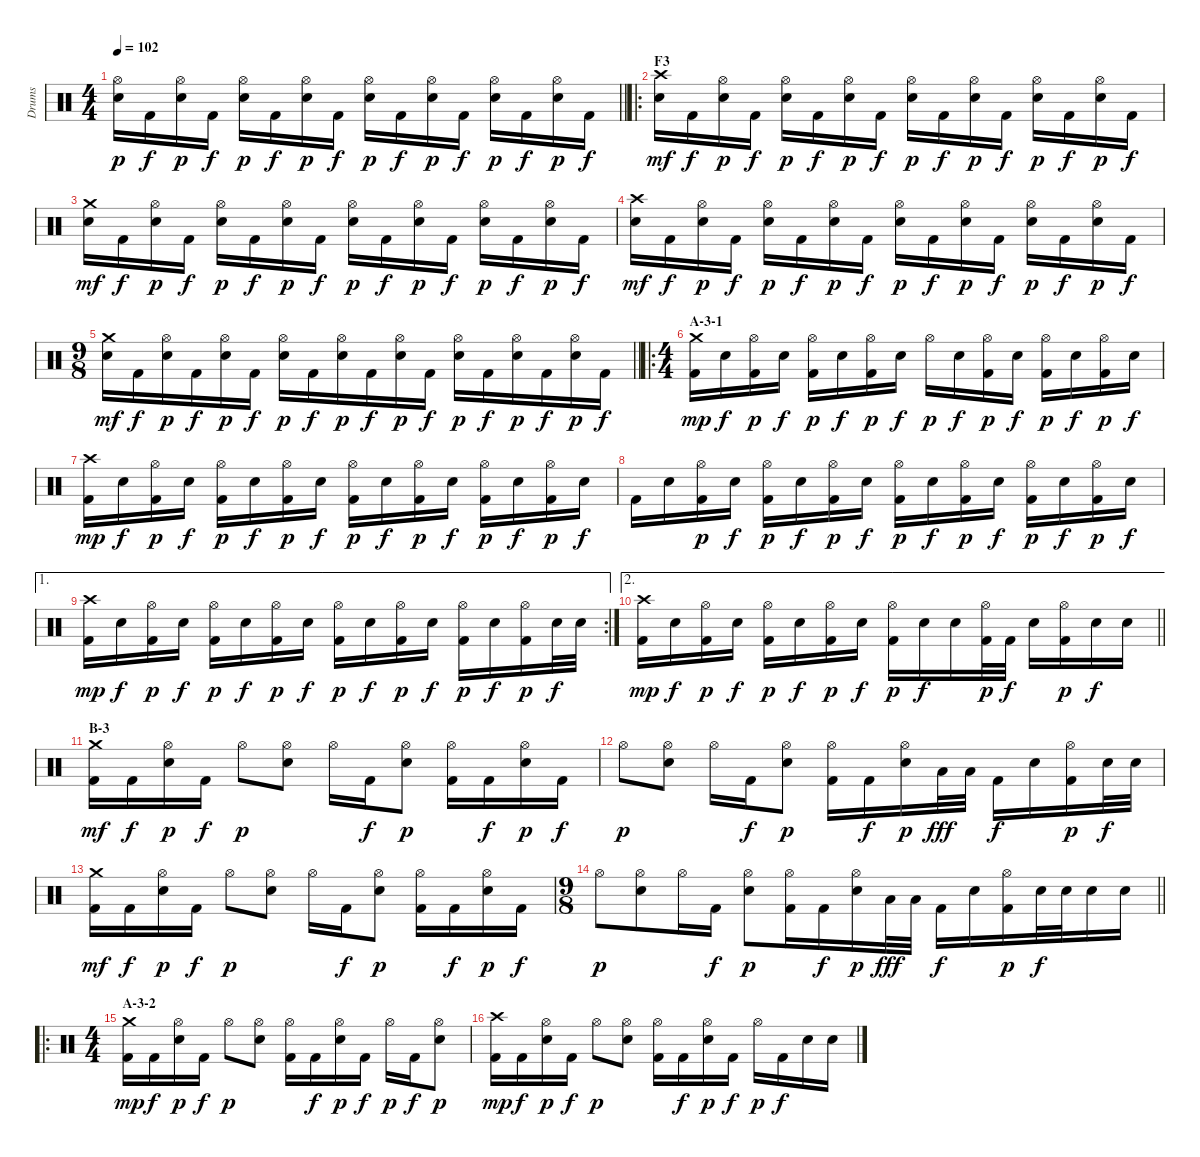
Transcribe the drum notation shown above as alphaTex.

\track ("Drums" "Drums") {instrument percussion}
\staff {score}
\articulation defaults
\ts (4 4)
\tempo 102
\clef neutral
\barLineRight lightlight
\ks c
("Hi-Hat (open)" "Electric Snare (hit)").16{dy p} "Kick (hit) 2".16{dy f} ("Hi-Hat (open)" "Electric Snare (hit)").16{dy p} "Kick (hit) 2".16{dy f} ("Hi-Hat (open)" "Electric Snare (hit)").16{dy p} "Kick (hit) 2".16{dy f} ("Hi-Hat (open)" "Electric Snare (hit)").16{dy p} "Kick (hit) 2".16{dy f} ("Hi-Hat (open)" "Electric Snare (hit)").16{dy p} "Kick (hit) 2".16{dy f} ("Hi-Hat (open)" "Electric Snare (hit)").16{dy p} "Kick (hit) 2".16{dy f} ("Hi-Hat (open)" "Electric Snare (hit)").16{dy p} "Kick (hit) 2".16{dy f} ("Hi-Hat (open)" "Electric Snare (hit)").16{dy p} "Kick (hit) 2".16{dy f} |
\ro
\section ("" "F3")
("Crash high (hit)" "Electric Snare (hit)").16{dy mf} "Kick (hit) 2".16{dy f} ("Hi-Hat (open)" "Electric Snare (hit)").16{dy p} "Kick (hit) 2".16{dy f} ("Hi-Hat (open)" "Electric Snare (hit)").16{dy p} "Kick (hit) 2".16{dy f} ("Hi-Hat (open)" "Electric Snare (hit)").16{dy p} "Kick (hit) 2".16{dy f} ("Hi-Hat (open)" "Electric Snare (hit)").16{dy p} "Kick (hit) 2".16{dy f} ("Hi-Hat (open)" "Electric Snare (hit)").16{dy p} "Kick (hit) 2".16{dy f} ("Hi-Hat (open)" "Electric Snare (hit)").16{dy p} "Kick (hit) 2".16{dy f} ("Hi-Hat (open)" "Electric Snare (hit)").16{dy p} "Kick (hit) 2".16{dy f} |
("Crash medium (hit)" "Electric Snare (hit)").16{dy mf} "Kick (hit) 2".16{dy f} ("Hi-Hat (open)" "Electric Snare (hit)").16{dy p} "Kick (hit) 2".16{dy f} ("Hi-Hat (open)" "Electric Snare (hit)").16{dy p} "Kick (hit) 2".16{dy f} ("Hi-Hat (open)" "Electric Snare (hit)").16{dy p} "Kick (hit) 2".16{dy f} ("Hi-Hat (open)" "Electric Snare (hit)").16{dy p} "Kick (hit) 2".16{dy f} ("Hi-Hat (open)" "Electric Snare (hit)").16{dy p} "Kick (hit) 2".16{dy f} ("Hi-Hat (open)" "Electric Snare (hit)").16{dy p} "Kick (hit) 2".16{dy f} ("Hi-Hat (open)" "Electric Snare (hit)").16{dy p} "Kick (hit) 2".16{dy f} |
("Crash high (hit)" "Electric Snare (hit)").16{dy mf} "Kick (hit) 2".16{dy f} ("Hi-Hat (open)" "Electric Snare (hit)").16{dy p} "Kick (hit) 2".16{dy f} ("Hi-Hat (open)" "Electric Snare (hit)").16{dy p} "Kick (hit) 2".16{dy f} ("Hi-Hat (open)" "Electric Snare (hit)").16{dy p} "Kick (hit) 2".16{dy f} ("Hi-Hat (open)" "Electric Snare (hit)").16{dy p} "Kick (hit) 2".16{dy f} ("Hi-Hat (open)" "Electric Snare (hit)").16{dy p} "Kick (hit) 2".16{dy f} ("Hi-Hat (open)" "Electric Snare (hit)").16{dy p} "Kick (hit) 2".16{dy f} ("Hi-Hat (open)" "Electric Snare (hit)").16{dy p} "Kick (hit) 2".16{dy f} |
\ts (9 8)
\barLineRight lightlight
("Crash medium (hit)" "Electric Snare (hit)").16{dy mf} "Kick (hit) 2".16{dy f} ("Hi-Hat (open)" "Electric Snare (hit)").16{dy p} "Kick (hit) 2".16{dy f} ("Hi-Hat (open)" "Electric Snare (hit)").16{dy p} "Kick (hit) 2".16{dy f} ("Hi-Hat (open)" "Electric Snare (hit)").16{dy p} "Kick (hit) 2".16{dy f} ("Hi-Hat (open)" "Electric Snare (hit)").16{dy p} "Kick (hit) 2".16{dy f} ("Hi-Hat (open)" "Electric Snare (hit)").16{dy p} "Kick (hit) 2".16{dy f} ("Hi-Hat (open)" "Electric Snare (hit)").16{dy p} "Kick (hit) 2".16{dy f} ("Hi-Hat (open)" "Electric Snare (hit)").16{dy p} "Kick (hit) 2".16{dy f} ("Hi-Hat (open)" "Electric Snare (hit)").16{dy p} "Kick (hit) 2".16{dy f} |
\ro
\ts (4 4)
\section ("" "A-3-1")
("Crash medium (hit)" "Kick (hit) 2").16{dy mp} "Electric Snare (hit)".16{dy f} ("Hi-Hat (open)" "Kick (hit) 2").16{dy p} "Electric Snare (hit)".16{dy f} ("Hi-Hat (open)" "Kick (hit) 2").16{dy p} "Electric Snare (hit)".16{dy f} ("Hi-Hat (open)" "Kick (hit) 2").16{dy p} "Electric Snare (hit)".16{dy f} "Hi-Hat (open)".16{dy p} "Electric Snare (hit)".16{dy f} ("Hi-Hat (open)" "Kick (hit) 2").16{dy p} "Electric Snare (hit)".16{dy f} ("Hi-Hat (open)" "Kick (hit) 2").16{dy p} "Electric Snare (hit)".16{dy f} ("Hi-Hat (open)" "Kick (hit) 2").16{dy p} "Electric Snare (hit)".16{dy f} |
("Crash high (hit)" "Kick (hit) 2").16{dy mp} "Electric Snare (hit)".16{dy f} ("Hi-Hat (open)" "Kick (hit) 2").16{dy p} "Electric Snare (hit)".16{dy f} ("Hi-Hat (open)" "Kick (hit) 2").16{dy p} "Electric Snare (hit)".16{dy f} ("Hi-Hat (open)" "Kick (hit) 2").16{dy p} "Electric Snare (hit)".16{dy f} ("Hi-Hat (open)" "Kick (hit) 2").16{dy p} "Electric Snare (hit)".16{dy f} ("Hi-Hat (open)" "Kick (hit) 2").16{dy p} "Electric Snare (hit)".16{dy f} ("Hi-Hat (open)" "Kick (hit) 2").16{dy p} "Electric Snare (hit)".16{dy f} ("Hi-Hat (open)" "Kick (hit) 2").16{dy p} "Electric Snare (hit)".16{dy f} |
"Kick (hit) 2".16 "Electric Snare (hit)".16 ("Hi-Hat (open)" "Kick (hit) 2").16{dy p} "Electric Snare (hit)".16{dy f} ("Hi-Hat (open)" "Kick (hit) 2").16{dy p} "Electric Snare (hit)".16{dy f} ("Hi-Hat (open)" "Kick (hit) 2").16{dy p} "Electric Snare (hit)".16{dy f} ("Hi-Hat (open)" "Kick (hit) 2").16{dy p} "Electric Snare (hit)".16{dy f} ("Hi-Hat (open)" "Kick (hit) 2").16{dy p} "Electric Snare (hit)".16{dy f} ("Hi-Hat (open)" "Kick (hit) 2").16{dy p} "Electric Snare (hit)".16{dy f} ("Hi-Hat (open)" "Kick (hit) 2").16{dy p} "Electric Snare (hit)".16{dy f} |
\ae 1
\rc 2
("Crash high (hit)" "Kick (hit) 2").16{dy mp} "Electric Snare (hit)".16{dy f} ("Hi-Hat (open)" "Kick (hit) 2").16{dy p} "Electric Snare (hit)".16{dy f} ("Hi-Hat (open)" "Kick (hit) 2").16{dy p} "Electric Snare (hit)".16{dy f} ("Hi-Hat (open)" "Kick (hit) 2").16{dy p} "Electric Snare (hit)".16{dy f} ("Hi-Hat (open)" "Kick (hit) 2").16{dy p} "Electric Snare (hit)".16{dy f} ("Hi-Hat (open)" "Kick (hit) 2").16{dy p} "Electric Snare (hit)".16{dy f} ("Hi-Hat (open)" "Kick (hit) 2").16{dy p} "Electric Snare (hit)".16{dy f} ("Hi-Hat (open)" "Kick (hit) 2").16{dy p} "Electric Snare (hit)".32{dy f} "Electric Snare (hit)".32 |
\ae 2
\barLineRight lightlight
("Crash high (hit)" "Kick (hit) 2").16{dy mp} "Electric Snare (hit)".16{dy f} ("Hi-Hat (open)" "Kick (hit) 2").16{dy p} "Electric Snare (hit)".16{dy f} ("Hi-Hat (open)" "Kick (hit) 2").16{dy p} "Electric Snare (hit)".16{dy f} ("Hi-Hat (open)" "Kick (hit) 2").16{dy p} "Electric Snare (hit)".16{dy f} ("Hi-Hat (open)" "Kick (hit) 2").16{dy p} "Electric Snare (hit)".16{dy f} "Electric Snare (hit)".16 ("Hi-Hat (open)" "Kick (hit) 2").32{dy p} "Kick (hit) 2".32{dy f} "Electric Snare (hit)".16 ("Hi-Hat (open)" "Kick (hit) 2").16{dy p} "Electric Snare (hit)".16{dy f} "Electric Snare (hit)".16 |
\section ("" "B-3")
("Crash medium (hit)" "Kick (hit) 2").16{dy mf} "Kick (hit) 2".16{dy f} ("Hi-Hat (open)" "Electric Snare (hit)").16{dy p} "Kick (hit) 2".16{dy f} "Hi-Hat (open)".8{dy p} ("Hi-Hat (open)" "Electric Snare (hit)").8 "Hi-Hat (open)".16 "Kick (hit) 2".16{dy f} ("Hi-Hat (open)" "Electric Snare (hit)").8{dy p} ("Hi-Hat (open)" "Kick (hit) 2").16 "Kick (hit) 2".16{dy f} ("Hi-Hat (open)" "Electric Snare (hit)").16{dy p} "Kick (hit) 2".16{dy f} |
"Hi-Hat (open)".8{dy p} ("Hi-Hat (open)" "Electric Snare (hit)").8 "Hi-Hat (open)".16 "Kick (hit) 2".16{dy f} ("Hi-Hat (open)" "Electric Snare (hit)").8{dy p} ("Hi-Hat (open)" "Kick (hit) 2").16 "Kick (hit) 2".16{dy f} ("Hi-Hat (open)" "Electric Snare (hit)").16{dy p} "Low Tom (hit)".32{dy fff} "Low Tom (hit)".32 "Kick (hit) 2".16{dy f} "Electric Snare (hit)".16 ("Hi-Hat (open)" "Kick (hit) 2").16{dy p} "Electric Snare (hit)".32{dy f} "Electric Snare (hit)".32 |
("Crash medium (hit)" "Kick (hit) 2").16{dy mf} "Kick (hit) 2".16{dy f} ("Hi-Hat (open)" "Electric Snare (hit)").16{dy p} "Kick (hit) 2".16{dy f} "Hi-Hat (open)".8{dy p} ("Hi-Hat (open)" "Electric Snare (hit)").8 "Hi-Hat (open)".16 "Kick (hit) 2".16{dy f} ("Hi-Hat (open)" "Electric Snare (hit)").8{dy p} ("Hi-Hat (open)" "Kick (hit) 2").16 "Kick (hit) 2".16{dy f} ("Hi-Hat (open)" "Electric Snare (hit)").16{dy p} "Kick (hit) 2".16{dy f} |
\ts (9 8)
\barLineRight lightlight "Hi-Hat (open)".8{dy p}
("Hi-Hat (open)" "Electric Snare (hit)").8 "Hi-Hat (open)".16 "Kick (hit) 2".16{dy f} ("Hi-Hat (open)" "Electric Snare (hit)").8{dy p} ("Hi-Hat (open)" "Kick (hit) 2").16 "Kick (hit) 2".16{dy f} ("Hi-Hat (open)" "Electric Snare (hit)").16{dy p} "Low Tom (hit)".32{dy fff} "Low Tom (hit)".32 "Kick (hit) 2".16{dy f} "Electric Snare (hit)".16 ("Hi-Hat (open)" "Kick (hit) 2").16{dy p} "Electric Snare (hit)".32{dy f} "Electric Snare (hit)".32 "Electric Snare (hit)".16 "Electric Snare (hit)".16 |
\ro
\ts (4 4)
\section ("" "A-3-2")
("Crash medium (hit)" "Kick (hit) 2").16{dy mp} "Kick (hit) 2".16{dy f} ("Hi-Hat (open)" "Electric Snare (hit)").16{dy p} "Kick (hit) 2".16{dy f} "Hi-Hat (open)".8{dy p} ("Hi-Hat (open)" "Electric Snare (hit)").8 ("Hi-Hat (open)" "Kick (hit) 2").16 "Kick (hit) 2".16{dy f} ("Hi-Hat (open)" "Electric Snare (hit)").16{dy p} "Kick (hit) 2".16{dy f} "Hi-Hat (open)".16{dy p} "Kick (hit) 2".16{dy f} ("Hi-Hat (open)" "Electric Snare (hit)").8{dy p} |
("Crash high (hit)" "Kick (hit) 2").16{dy mp} "Kick (hit) 2".16{dy f} ("Hi-Hat (open)" "Electric Snare (hit)").16{dy p} "Kick (hit) 2".16{dy f} "Hi-Hat (open)".8{dy p} ("Hi-Hat (open)" "Electric Snare (hit)").8 ("Hi-Hat (open)" "Kick (hit) 2").16 "Kick (hit) 2".16{dy f} ("Hi-Hat (open)" "Electric Snare (hit)").16{dy p} "Kick (hit) 2".16{dy f} "Hi-Hat (open)".16{dy p} "Kick (hit) 2".16{dy f} "Electric Snare (hit)".16 "Electric Snare (hit)".16
